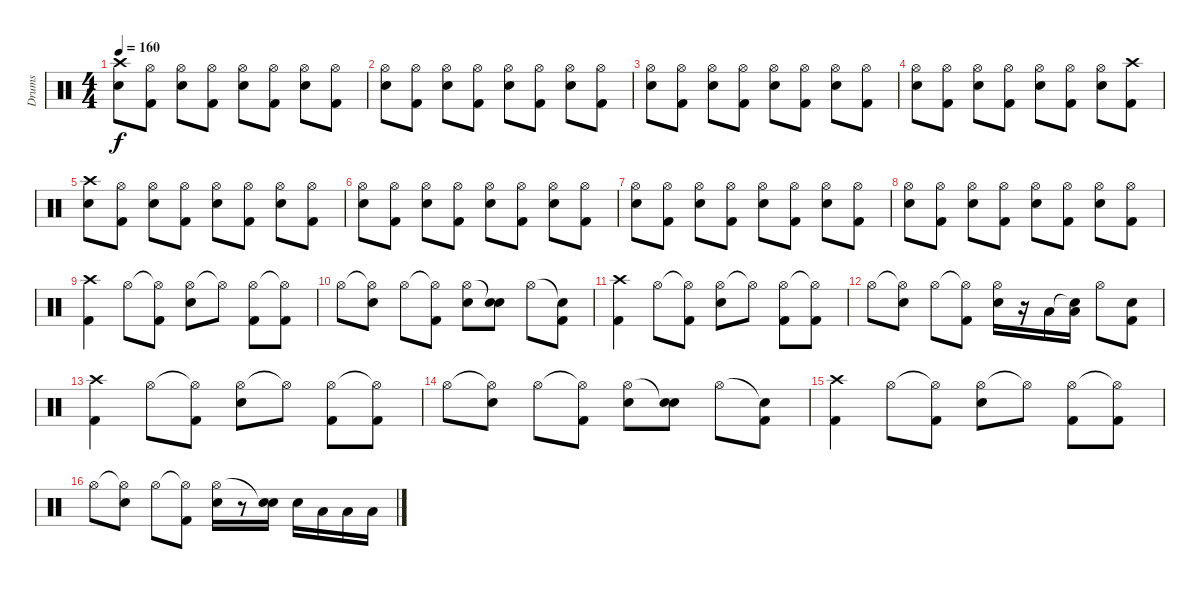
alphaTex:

\track ("Drums" "Drums") {instrument percussion}
\staff {score}
\articulation defaults
\ts (4 4)
\tempo 160
\clef neutral
\ks c
("Crash high (hit)" "Snare (hit) 2").8{dy f} ("Hi-Hat (open)" "Kick (hit) 2").8 ("Hi-Hat (open)" "Snare (hit) 2").8 ("Hi-Hat (open)" "Kick (hit) 2").8 ("Hi-Hat (open)" "Snare (hit) 2").8 ("Hi-Hat (open)" "Kick (hit) 2").8 ("Hi-Hat (open)" "Snare (hit) 2").8 ("Hi-Hat (open)" "Kick (hit) 2").8 |
("Hi-Hat (open)" "Snare (hit) 2").8 ("Hi-Hat (open)" "Kick (hit) 2").8 ("Hi-Hat (open)" "Snare (hit) 2").8 ("Hi-Hat (open)" "Kick (hit) 2").8 ("Hi-Hat (open)" "Snare (hit) 2").8 ("Hi-Hat (open)" "Kick (hit) 2").8 ("Hi-Hat (open)" "Snare (hit) 2").8 ("Hi-Hat (open)" "Kick (hit) 2").8 |
("Hi-Hat (open)" "Snare (hit) 2").8 ("Hi-Hat (open)" "Kick (hit) 2").8 ("Hi-Hat (open)" "Snare (hit) 2").8 ("Hi-Hat (open)" "Kick (hit) 2").8 ("Hi-Hat (open)" "Snare (hit) 2").8 ("Hi-Hat (open)" "Kick (hit) 2").8 ("Hi-Hat (open)" "Snare (hit) 2").8 ("Hi-Hat (open)" "Kick (hit) 2").8 |
("Hi-Hat (open)" "Snare (hit) 2").8 ("Hi-Hat (open)" "Kick (hit) 2").8 ("Hi-Hat (open)" "Snare (hit) 2").8 ("Hi-Hat (open)" "Kick (hit) 2").8 ("Hi-Hat (open)" "Snare (hit) 2").8 ("Hi-Hat (open)" "Kick (hit) 2").8 ("Hi-Hat (open)" "Snare (hit) 2").8 ("Crash high (hit)" "Kick (hit) 2").8 |
("Crash high (hit)" "Snare (hit) 2").8 ("Hi-Hat (open)" "Kick (hit) 2").8 ("Hi-Hat (open)" "Snare (hit) 2").8 ("Hi-Hat (open)" "Kick (hit) 2").8 ("Hi-Hat (open)" "Snare (hit) 2").8 ("Hi-Hat (open)" "Kick (hit) 2").8 ("Hi-Hat (open)" "Snare (hit) 2").8 ("Hi-Hat (open)" "Kick (hit) 2").8 |
("Hi-Hat (open)" "Snare (hit) 2").8 ("Hi-Hat (open)" "Kick (hit) 2").8 ("Hi-Hat (open)" "Snare (hit) 2").8 ("Hi-Hat (open)" "Kick (hit) 2").8 ("Hi-Hat (open)" "Snare (hit) 2").8 ("Hi-Hat (open)" "Kick (hit) 2").8 ("Hi-Hat (open)" "Snare (hit) 2").8 ("Hi-Hat (open)" "Kick (hit) 2").8 |
("Hi-Hat (open)" "Snare (hit) 2").8 ("Hi-Hat (open)" "Kick (hit) 2").8 ("Hi-Hat (open)" "Snare (hit) 2").8 ("Hi-Hat (open)" "Kick (hit) 2").8 ("Hi-Hat (open)" "Snare (hit) 2").8 ("Hi-Hat (open)" "Kick (hit) 2").8 ("Hi-Hat (open)" "Snare (hit) 2").8 ("Hi-Hat (open)" "Kick (hit) 2").8 |
("Hi-Hat (open)" "Snare (hit) 2").8 ("Hi-Hat (open)" "Kick (hit) 2").8 ("Hi-Hat (open)" "Snare (hit) 2").8 ("Hi-Hat (open)" "Kick (hit) 2").8 ("Hi-Hat (open)" "Snare (hit) 2").8 ("Hi-Hat (open)" "Kick (hit) 2").8 ("Hi-Hat (open)" "Snare (hit) 2"{tr (38 32)}).8 ("Hi-Hat (open)" "Kick (hit) 2").8 |
("Crash high (hit)" "Kick (hit) 2").4 "Hi-Hat (open)".8 ("Hi-Hat (open)"{t} "Kick (hit) 2").8 ("Hi-Hat (open)" "Snare (hit) 2").8 "Hi-Hat (open)"{t}.8 ("Hi-Hat (open)" "Kick (hit) 2").8 ("Hi-Hat (open)"{t} "Kick (hit) 2").8 |
"Hi-Hat (open)".8 ("Hi-Hat (open)"{t} "Snare (hit) 2").8 "Hi-Hat (open)".8 ("Hi-Hat (open)"{t} "Kick (hit) 2").8 ("Hi-Hat (open)" "Snare (hit) 2").8 ("Snare (hit)"{t} "Snare (hit) 2").8 "Hi-Hat (open)".8 ("Snare (hit)"{t} "Kick (hit) 2").8 |
("Crash high (hit)" "Kick (hit) 2").4 "Hi-Hat (open)".8 ("Hi-Hat (open)"{t} "Kick (hit) 2").8 ("Hi-Hat (open)" "Snare (hit) 2").8 "Hi-Hat (open)"{t}.8 ("Hi-Hat (open)" "Kick (hit) 2").8 ("Hi-Hat (open)"{t} "Kick (hit) 2").8 |
"Hi-Hat (open)".8 ("Hi-Hat (open)"{t} "Snare (hit) 2").8 "Hi-Hat (open)".8 ("Hi-Hat (open)"{t} "Kick (hit) 2").8 ("Hi-Hat (open)" "Snare (hit) 2").16 r.16 "Low Tom (hit)".16 ("Snare (hit)"{t} "Low Floor Tom (hit)").16 "Hi-Hat (open)".8 ("Snare (hit) 2" "Kick (hit) 2").8 |
("Crash high (hit)" "Kick (hit) 2").4 "Hi-Hat (open)".8 ("Hi-Hat (open)"{t} "Kick (hit) 2").8 ("Hi-Hat (open)" "Snare (hit) 2").8 "Hi-Hat (open)"{t}.8 ("Hi-Hat (open)" "Kick (hit) 2").8 ("Hi-Hat (open)"{t} "Kick (hit) 2").8 |
"Hi-Hat (open)".8 ("Hi-Hat (open)"{t} "Snare (hit) 2").8 "Hi-Hat (open)".8 ("Hi-Hat (open)"{t} "Kick (hit) 2").8 ("Hi-Hat (open)" "Snare (hit) 2").8 ("Snare (hit)"{t} "Snare (hit) 2").8 "Hi-Hat (open)".8 ("Snare (hit)"{t} "Kick (hit) 2").8 |
("Crash high (hit)" "Kick (hit) 2").4 "Hi-Hat (open)".8 ("Hi-Hat (open)"{t} "Kick (hit) 2").8 ("Hi-Hat (open)" "Snare (hit) 2").8 "Hi-Hat (open)"{t}.8 ("Hi-Hat (open)" "Kick (hit) 2").8 ("Hi-Hat (open)"{t} "Kick (hit) 2").8 |
"Hi-Hat (open)".8 ("Hi-Hat (open)"{t} "Snare (hit) 2").8 "Hi-Hat (open)".8 ("Hi-Hat (open)"{t} "Kick (hit) 2").8 ("Hi-Hat (open)" "Snare (hit) 2").16 r.8 ("Snare (hit)"{t} "Snare (hit) 2").16 "Snare (hit) 2".16 "Low Tom (hit)".16 "Low Tom (hit)".16 "Low Floor Tom (hit)".16
